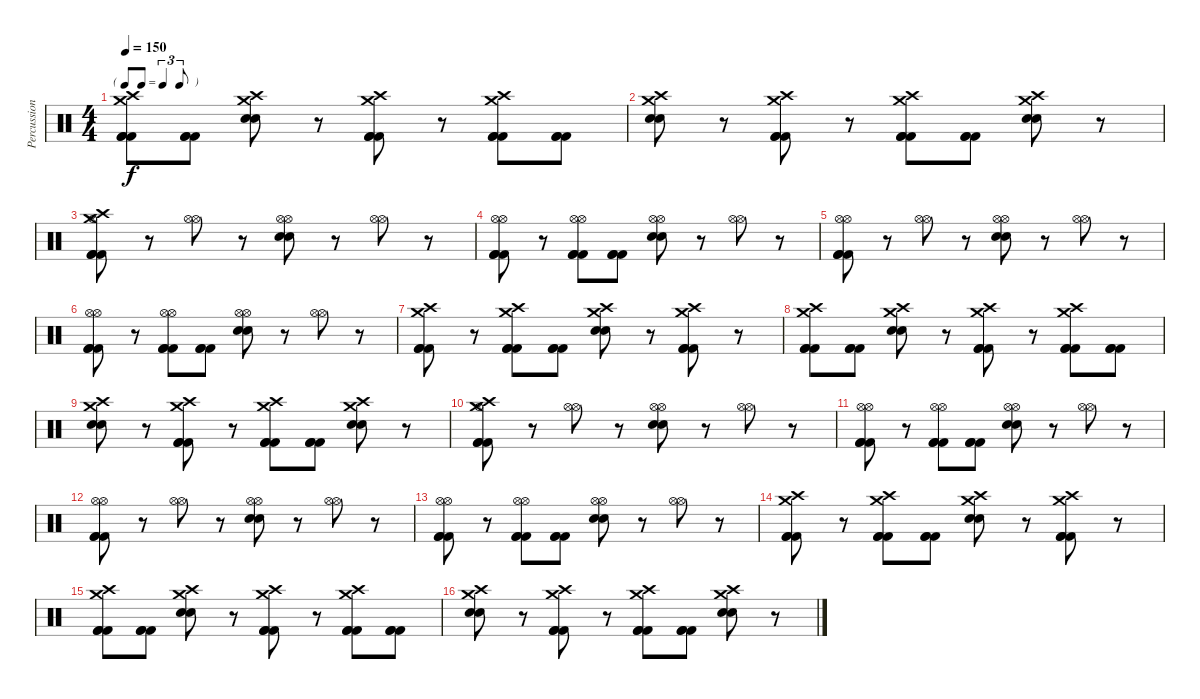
\track ("Percussion" "Percussion") {instrument percussion}
\staff {score}
\articulation defaults
\ts (4 4)
\tf triplet8th
\tempo 150
\clef neutral
\ks c
("Crash high (hit)" "Crash medium (hit)" "Kick (hit) 2" "Kick (hit) 2" "Kick (hit) 2").8{dy f} ("Kick (hit) 2" "Kick (hit) 2" "Kick (hit) 2").8 ("Crash high (hit)" "Crash medium (hit)" "Electric Snare (hit)" "Electric Snare (hit)").8 r.8 ("Crash high (hit)" "Crash medium (hit)" "Kick (hit) 2" "Kick (hit) 2" "Kick (hit) 2").8 r.8 ("Crash high (hit)" "Crash medium (hit)" "Kick (hit) 2" "Kick (hit) 2" "Kick (hit) 2").8 ("Kick (hit) 2" "Kick (hit) 2" "Kick (hit) 2").8 |
("Crash high (hit)" "Crash medium (hit)" "Electric Snare (hit)" "Electric Snare (hit)").8 r.8 ("Crash high (hit)" "Crash medium (hit)" "Kick (hit) 2" "Kick (hit) 2" "Kick (hit) 2").8 r.8 ("Crash high (hit)" "Crash medium (hit)" "Kick (hit) 2" "Kick (hit) 2" "Kick (hit) 2").8 ("Kick (hit) 2" "Kick (hit) 2" "Kick (hit) 2").8 ("Crash high (hit)" "Crash medium (hit)" "Electric Snare (hit)" "Electric Snare (hit)").8 r.8 |
("Hi-Hat (open)" "Crash high (hit)" "Crash medium (hit)" "Kick (hit) 2" "Kick (hit) 2" "Kick (hit) 2").8 r.8 ("Hi-Hat (open)" "Hi-Hat (open)").8 r.8 ("Hi-Hat (open)" "Hi-Hat (open)" "Electric Snare (hit)" "Electric Snare (hit)").8 r.8 ("Hi-Hat (open)" "Hi-Hat (open)").8 r.8 |
("Hi-Hat (open)" "Hi-Hat (open)" "Kick (hit) 2" "Kick (hit) 2" "Kick (hit) 2").8 r.8 ("Hi-Hat (open)" "Hi-Hat (open)" "Kick (hit) 2" "Kick (hit) 2" "Kick (hit) 2").8 ("Kick (hit) 2" "Kick (hit) 2" "Kick (hit) 2").8 ("Hi-Hat (open)" "Hi-Hat (open)" "Electric Snare (hit)" "Electric Snare (hit)").8 r.8 ("Hi-Hat (open)" "Hi-Hat (open)").8 r.8 |
("Hi-Hat (open)" "Hi-Hat (open)" "Kick (hit) 2" "Kick (hit) 2" "Kick (hit) 2").8 r.8 ("Hi-Hat (open)" "Hi-Hat (open)").8 r.8 ("Hi-Hat (open)" "Hi-Hat (open)" "Electric Snare (hit)" "Electric Snare (hit)").8 r.8 ("Hi-Hat (open)" "Hi-Hat (open)").8 r.8 |
("Hi-Hat (open)" "Hi-Hat (open)" "Kick (hit) 2" "Kick (hit) 2" "Kick (hit) 2").8 r.8 ("Hi-Hat (open)" "Hi-Hat (open)" "Kick (hit) 2" "Kick (hit) 2" "Kick (hit) 2").8 ("Kick (hit) 2" "Kick (hit) 2" "Kick (hit) 2").8 ("Hi-Hat (open)" "Hi-Hat (open)" "Electric Snare (hit)" "Electric Snare (hit)").8 r.8 ("Hi-Hat (open)" "Hi-Hat (open)").8 r.8 |
("Crash high (hit)" "Crash medium (hit)" "Kick (hit) 2" "Kick (hit) 2" "Kick (hit) 2").8 r.8 ("Crash high (hit)" "Crash medium (hit)" "Kick (hit) 2" "Kick (hit) 2" "Kick (hit) 2").8 ("Kick (hit) 2" "Kick (hit) 2" "Kick (hit) 2").8 ("Crash high (hit)" "Crash medium (hit)" "Electric Snare (hit)" "Electric Snare (hit)").8 r.8 ("Crash high (hit)" "Crash medium (hit)" "Kick (hit) 2" "Kick (hit) 2" "Kick (hit) 2").8 r.8 |
("Crash high (hit)" "Crash medium (hit)" "Kick (hit) 2" "Kick (hit) 2" "Kick (hit) 2").8 ("Kick (hit) 2" "Kick (hit) 2" "Kick (hit) 2").8 ("Crash high (hit)" "Crash medium (hit)" "Electric Snare (hit)" "Electric Snare (hit)").8 r.8 ("Crash high (hit)" "Crash medium (hit)" "Kick (hit) 2" "Kick (hit) 2" "Kick (hit) 2").8 r.8 ("Crash high (hit)" "Crash medium (hit)" "Kick (hit) 2" "Kick (hit) 2" "Kick (hit) 2").8 ("Kick (hit) 2" "Kick (hit) 2" "Kick (hit) 2").8 |
("Crash high (hit)" "Crash medium (hit)" "Electric Snare (hit)" "Electric Snare (hit)").8 r.8 ("Crash high (hit)" "Crash medium (hit)" "Kick (hit) 2" "Kick (hit) 2" "Kick (hit) 2").8 r.8 ("Crash high (hit)" "Crash medium (hit)" "Kick (hit) 2" "Kick (hit) 2" "Kick (hit) 2").8 ("Kick (hit) 2" "Kick (hit) 2" "Kick (hit) 2").8 ("Crash high (hit)" "Crash medium (hit)" "Electric Snare (hit)" "Electric Snare (hit)").8 r.8 |
("Hi-Hat (open)" "Crash high (hit)" "Crash medium (hit)" "Kick (hit) 2" "Kick (hit) 2" "Kick (hit) 2").8 r.8 ("Hi-Hat (open)" "Hi-Hat (open)").8 r.8 ("Hi-Hat (open)" "Hi-Hat (open)" "Electric Snare (hit)" "Electric Snare (hit)").8 r.8 ("Hi-Hat (open)" "Hi-Hat (open)").8 r.8 |
("Hi-Hat (open)" "Hi-Hat (open)" "Kick (hit) 2" "Kick (hit) 2" "Kick (hit) 2").8 r.8 ("Hi-Hat (open)" "Hi-Hat (open)" "Kick (hit) 2" "Kick (hit) 2" "Kick (hit) 2").8 ("Kick (hit) 2" "Kick (hit) 2" "Kick (hit) 2").8 ("Hi-Hat (open)" "Hi-Hat (open)" "Electric Snare (hit)" "Electric Snare (hit)").8 r.8 ("Hi-Hat (open)" "Hi-Hat (open)").8 r.8 |
("Hi-Hat (open)" "Hi-Hat (open)" "Kick (hit) 2" "Kick (hit) 2" "Kick (hit) 2").8 r.8 ("Hi-Hat (open)" "Hi-Hat (open)").8 r.8 ("Hi-Hat (open)" "Hi-Hat (open)" "Electric Snare (hit)" "Electric Snare (hit)").8 r.8 ("Hi-Hat (open)" "Hi-Hat (open)").8 r.8 |
("Hi-Hat (open)" "Hi-Hat (open)" "Kick (hit) 2" "Kick (hit) 2" "Kick (hit) 2").8 r.8 ("Hi-Hat (open)" "Hi-Hat (open)" "Kick (hit) 2" "Kick (hit) 2" "Kick (hit) 2").8 ("Kick (hit) 2" "Kick (hit) 2" "Kick (hit) 2").8 ("Hi-Hat (open)" "Hi-Hat (open)" "Electric Snare (hit)" "Electric Snare (hit)").8 r.8 ("Hi-Hat (open)" "Hi-Hat (open)").8 r.8 |
("Crash high (hit)" "Crash medium (hit)" "Kick (hit) 2" "Kick (hit) 2" "Kick (hit) 2").8 r.8 ("Crash high (hit)" "Crash medium (hit)" "Kick (hit) 2" "Kick (hit) 2" "Kick (hit) 2").8 ("Kick (hit) 2" "Kick (hit) 2" "Kick (hit) 2").8 ("Crash high (hit)" "Crash medium (hit)" "Electric Snare (hit)" "Electric Snare (hit)").8 r.8 ("Crash high (hit)" "Crash medium (hit)" "Kick (hit) 2" "Kick (hit) 2" "Kick (hit) 2").8 r.8 |
("Crash high (hit)" "Crash medium (hit)" "Kick (hit) 2" "Kick (hit) 2" "Kick (hit) 2").8 ("Kick (hit) 2" "Kick (hit) 2" "Kick (hit) 2").8 ("Crash high (hit)" "Crash medium (hit)" "Electric Snare (hit)" "Electric Snare (hit)").8 r.8 ("Crash high (hit)" "Crash medium (hit)" "Kick (hit) 2" "Kick (hit) 2" "Kick (hit) 2").8 r.8 ("Crash high (hit)" "Crash medium (hit)" "Kick (hit) 2" "Kick (hit) 2" "Kick (hit) 2").8 ("Kick (hit) 2" "Kick (hit) 2" "Kick (hit) 2").8 |
("Crash high (hit)" "Crash medium (hit)" "Electric Snare (hit)" "Electric Snare (hit)").8 r.8 ("Crash high (hit)" "Crash medium (hit)" "Kick (hit) 2" "Kick (hit) 2" "Kick (hit) 2").8 r.8 ("Crash high (hit)" "Crash medium (hit)" "Kick (hit) 2" "Kick (hit) 2" "Kick (hit) 2").8 ("Kick (hit) 2" "Kick (hit) 2" "Kick (hit) 2").8 ("Crash high (hit)" "Crash medium (hit)" "Electric Snare (hit)" "Electric Snare (hit)").8 r.8
